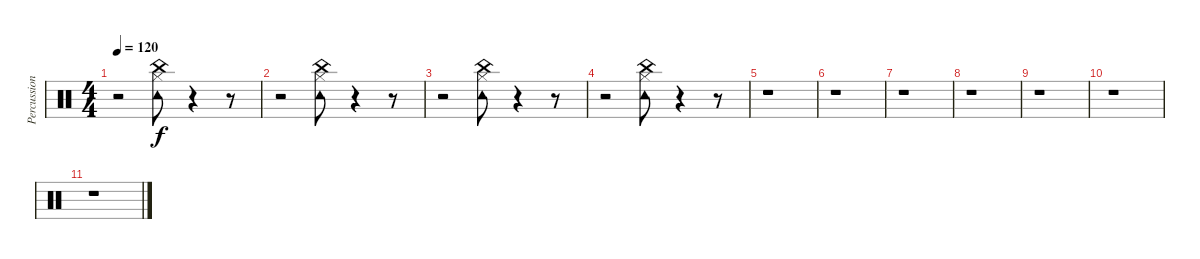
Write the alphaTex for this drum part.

\track ("Percussion " "Percussion") {instrument percussion}
\staff {score}
\articulation defaults
\ts (4 4)
\tempo 120
\clef neutral
\ks c
r.2{dy f} ("Tambourine (hit)" "China (hit)" "Hi-Hat (closed)").8 r.4 r.8 |
r.2 ("Tambourine (hit)" "China (hit)" "Hi-Hat (closed)").8 r.4 r.8 |
r.2 ("Tambourine (hit)" "China (hit)" "Hi-Hat (closed)").8 r.4 r.8 |
r.2 ("Tambourine (hit)" "China (hit)" "Hi-Hat (closed)").8 r.4 r.8 |
r.1 |
r.1 |
r.1 |
r.1 |
r.1 |
r.1 |
r.1
